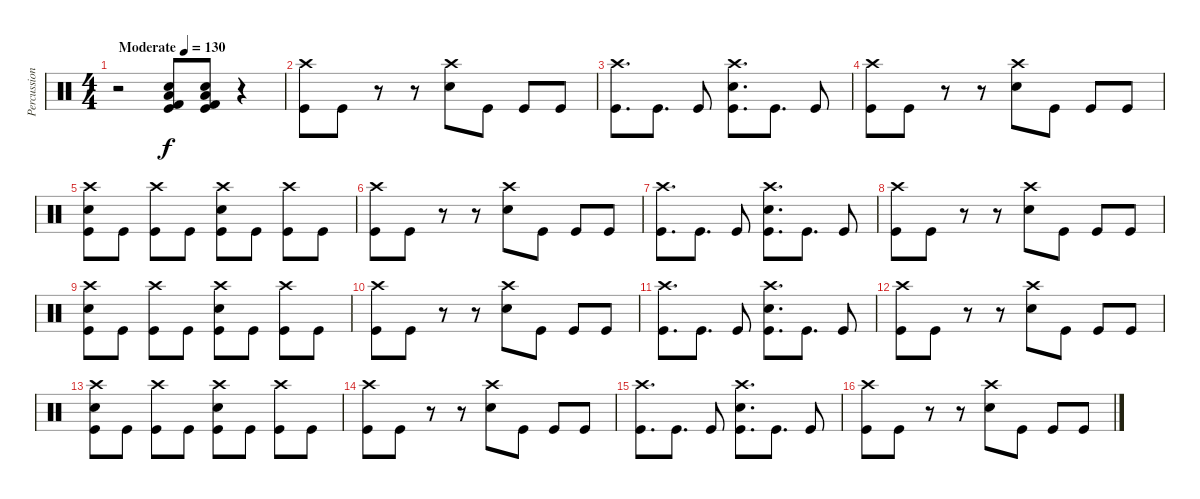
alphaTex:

\track ("Percussion" "Percussion") {instrument percussion}
\staff {score}
\articulation defaults
\ts (4 4)
\tempo (130 "Moderate")
\clef neutral
\ks c
r.2{dy f} ("Low Tom (hit)" "Kick (hit) 2" "Snare (hit) 2" "Kick (hit)").8 ("Low Tom (hit)" "Kick (hit) 2" "Snare (hit) 2" "Kick (hit)").8 r.4 |
("Crash high (hit)" "Kick (hit)").8 "Kick (hit)".8 r.8 r.8 ("Crash high (hit)" "Snare (hit) 2").8 "Kick (hit)".8 "Kick (hit)".8 "Kick (hit)".8 |
("Crash high (hit)" "Kick (hit)").8{d} "Kick (hit)".8{d} "Kick (hit)".8 ("Crash high (hit)" "Snare (hit) 2" "Kick (hit)").8{d} "Kick (hit)".8{d} "Kick (hit)".8 |
("Crash high (hit)" "Kick (hit)").8 "Kick (hit)".8 r.8 r.8 ("Crash high (hit)" "Snare (hit) 2").8 "Kick (hit)".8 "Kick (hit)".8 "Kick (hit)".8 |
("Crash high (hit)" "Snare (hit) 2" "Kick (hit)").8 "Kick (hit)".8 ("Crash high (hit)" "Kick (hit)").8 "Kick (hit)".8 ("Crash high (hit)" "Snare (hit) 2" "Kick (hit)").8 "Kick (hit)".8 ("Crash high (hit)" "Kick (hit)").8 "Kick (hit)".8 |
("Crash high (hit)" "Kick (hit)").8 "Kick (hit)".8 r.8 r.8 ("Crash high (hit)" "Snare (hit) 2").8 "Kick (hit)".8 "Kick (hit)".8 "Kick (hit)".8 |
("Crash high (hit)" "Kick (hit)").8{d} "Kick (hit)".8{d} "Kick (hit)".8 ("Crash high (hit)" "Snare (hit) 2" "Kick (hit)").8{d} "Kick (hit)".8{d} "Kick (hit)".8 |
("Crash high (hit)" "Kick (hit)").8 "Kick (hit)".8 r.8 r.8 ("Crash high (hit)" "Snare (hit) 2").8 "Kick (hit)".8 "Kick (hit)".8 "Kick (hit)".8 |
("Crash high (hit)" "Snare (hit) 2" "Kick (hit)").8 "Kick (hit)".8 ("Crash high (hit)" "Kick (hit)").8 "Kick (hit)".8 ("Crash high (hit)" "Snare (hit) 2" "Kick (hit)").8 "Kick (hit)".8 ("Crash high (hit)" "Kick (hit)").8 "Kick (hit)".8 |
("Crash high (hit)" "Kick (hit)").8 "Kick (hit)".8 r.8 r.8 ("Crash high (hit)" "Snare (hit) 2").8 "Kick (hit)".8 "Kick (hit)".8 "Kick (hit)".8 |
("Crash high (hit)" "Kick (hit)").8{d} "Kick (hit)".8{d} "Kick (hit)".8 ("Crash high (hit)" "Snare (hit) 2" "Kick (hit)").8{d} "Kick (hit)".8{d} "Kick (hit)".8 |
("Crash high (hit)" "Kick (hit)").8 "Kick (hit)".8 r.8 r.8 ("Crash high (hit)" "Snare (hit) 2").8 "Kick (hit)".8 "Kick (hit)".8 "Kick (hit)".8 |
("Crash high (hit)" "Snare (hit) 2" "Kick (hit)").8 "Kick (hit)".8 ("Crash high (hit)" "Kick (hit)").8 "Kick (hit)".8 ("Crash high (hit)" "Snare (hit) 2" "Kick (hit)").8 "Kick (hit)".8 ("Crash high (hit)" "Kick (hit)").8 "Kick (hit)".8 |
("Crash high (hit)" "Kick (hit)").8 "Kick (hit)".8 r.8 r.8 ("Crash high (hit)" "Snare (hit) 2").8 "Kick (hit)".8 "Kick (hit)".8 "Kick (hit)".8 |
("Crash high (hit)" "Kick (hit)").8{d} "Kick (hit)".8{d} "Kick (hit)".8 ("Crash high (hit)" "Snare (hit) 2" "Kick (hit)").8{d} "Kick (hit)".8{d} "Kick (hit)".8 |
("Crash high (hit)" "Kick (hit)").8 "Kick (hit)".8 r.8 r.8 ("Crash high (hit)" "Snare (hit) 2").8 "Kick (hit)".8 "Kick (hit)".8 "Kick (hit)".8
